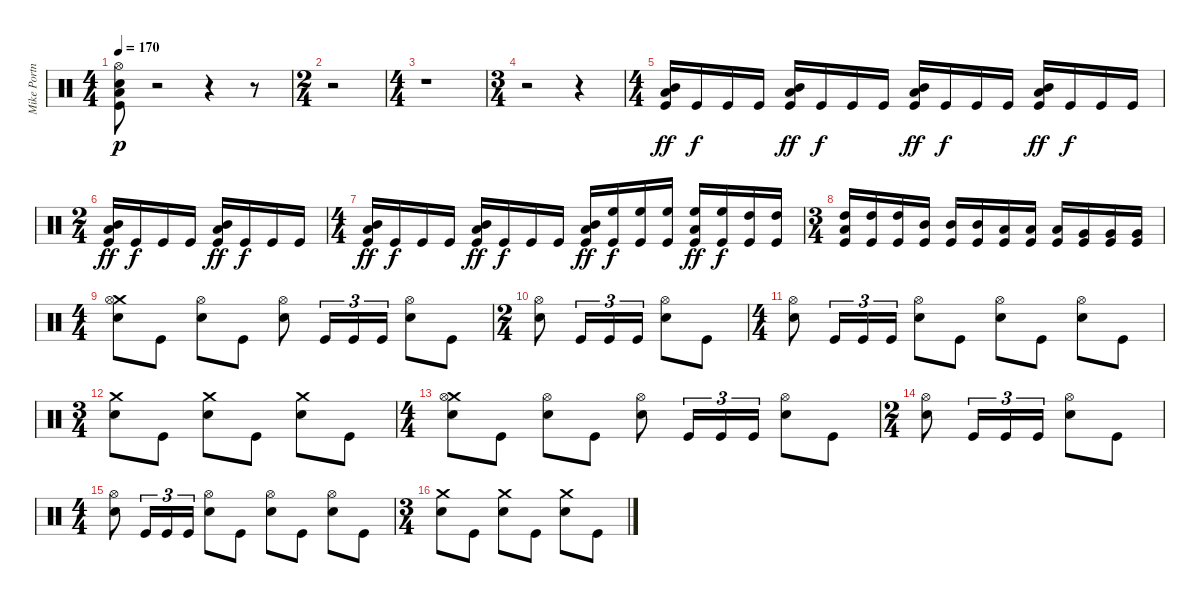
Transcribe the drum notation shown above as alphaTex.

\track ("Mike Portnoy" "Mike Portn") {instrument percussion}
\staff {score}
\articulation defaults
\ts (4 4)
\tempo 170
\clef neutral
\ks c
("Hi-Hat (open)" "Kick (hit)" "Electric Snare (hit)" "Low Tom (hit)").8{dy p} r.2 r.4 r.8 |
\ts (2 4)
r.2 |
\ts (4 4)
r.1 |
\ts (3 4)
r.2 r.4 |
\ts (4 4)
("Kick (hit)" "Low Tom (hit)" "Mid Tom (hit)").16{dy ff} "Kick (hit)".16{dy f} "Kick (hit)".16 "Kick (hit)".16 ("Kick (hit)" "Low Tom (hit)" "Mid Tom (hit)").16{dy ff} "Kick (hit)".16{dy f} "Kick (hit)".16 "Kick (hit)".16 ("Kick (hit)" "Low Tom (hit)" "Mid Tom (hit)").16{dy ff} "Kick (hit)".16{dy f} "Kick (hit)".16 "Kick (hit)".16 ("Kick (hit)" "Low Tom (hit)" "Mid Tom (hit)").16{dy ff} "Kick (hit)".16{dy f} "Kick (hit)".16 "Kick (hit)".16 |
\ts (2 4)
("Kick (hit)" "Low Tom (hit)" "Mid Tom (hit)").16{dy ff} "Kick (hit)".16{dy f} "Kick (hit)".16 "Kick (hit)".16 ("Kick (hit)" "Low Tom (hit)" "Mid Tom (hit)").16{dy ff} "Kick (hit)".16{dy f} "Kick (hit)".16 "Kick (hit)".16 |
\ts (4 4)
("Kick (hit)" "Low Tom (hit)" "Mid Tom (hit)").16{dy ff} "Kick (hit)".16{dy f} "Kick (hit)".16 "Kick (hit)".16 ("Kick (hit)" "Low Tom (hit)" "Mid Tom (hit)").16{dy ff} "Kick (hit)".16{dy f} "Kick (hit)".16 "Kick (hit)".16 ("Kick (hit)" "Low Tom (hit)" "Mid Tom (hit)").16{dy ff} ("Kick (hit)" "High Floor Tom (hit)").16{dy f} ("Kick (hit)" "High Floor Tom (hit)").16 ("Kick (hit)" "High Floor Tom (hit)").16 ("Kick (hit)" "Low Tom (hit)" "High Floor Tom (hit)").16{dy ff} ("Kick (hit)" "High Floor Tom (hit)").16{dy f} ("Kick (hit)" "High Tom (hit)").16 ("Kick (hit)" "High Tom (hit)").16 |
\ts (3 4)
("Kick (hit)" "Low Tom (hit)" "High Tom (hit)").16 ("Kick (hit)" "High Tom (hit)").16 ("Kick (hit)" "High Tom (hit)").16 ("Kick (hit)" "Mid Tom (hit)").16 ("Kick (hit)" "Mid Tom (hit)").16 ("Kick (hit)" "Mid Tom (hit)").16 ("Kick (hit)" "Low Tom (hit)").16 ("Kick (hit)" "Low Tom (hit)").16 ("Kick (hit)" "Low Tom (hit)").16 ("Kick (hit)" "Very Low Tom (hit)").16 ("Kick (hit)" "Very Low Tom (hit)").16 ("Kick (hit)" "Very Low Tom (hit)").16 |
\ts (4 4)
("Crash medium (hit)" "Hi-Hat (open)" "Electric Snare (hit)").8 "Kick (hit)".8 ("Hi-Hat (open)" "Electric Snare (hit)").8 "Kick (hit)".8 ("Hi-Hat (open)" "Electric Snare (hit)").8 "Kick (hit)".16{tu (3 2)} "Kick (hit)".16{tu (3 2)} "Kick (hit)".16{tu (3 2)} ("Hi-Hat (open)" "Electric Snare (hit)").8 "Kick (hit)".8 |
\ts (2 4)
("Hi-Hat (open)" "Electric Snare (hit)").8 "Kick (hit)".16{tu (3 2)} "Kick (hit)".16{tu (3 2)} "Kick (hit)".16{tu (3 2)} ("Hi-Hat (open)" "Electric Snare (hit)").8 "Kick (hit)".8 |
\ts (4 4)
("Hi-Hat (open)" "Electric Snare (hit)").8 "Kick (hit)".16{tu (3 2)} "Kick (hit)".16{tu (3 2)} "Kick (hit)".16{tu (3 2)} ("Hi-Hat (open)" "Electric Snare (hit)").8 "Kick (hit)".8 ("Hi-Hat (open)" "Electric Snare (hit)").8 "Kick (hit)".8 ("Hi-Hat (open)" "Electric Snare (hit)").8 "Kick (hit)".8 |
\ts (3 4)
("Crash medium (hit)" "Electric Snare (hit)").8 "Kick (hit)".8 ("Crash medium (hit)" "Electric Snare (hit)").8 "Kick (hit)".8 ("Crash medium (hit)" "Electric Snare (hit)").8 "Kick (hit)".8 |
\ts (4 4)
("Crash medium (hit)" "Hi-Hat (open)" "Electric Snare (hit)").8 "Kick (hit)".8 ("Hi-Hat (open)" "Electric Snare (hit)").8 "Kick (hit)".8 ("Hi-Hat (open)" "Electric Snare (hit)").8 "Kick (hit)".16{tu (3 2)} "Kick (hit)".16{tu (3 2)} "Kick (hit)".16{tu (3 2)} ("Hi-Hat (open)" "Electric Snare (hit)").8 "Kick (hit)".8 |
\ts (2 4)
("Hi-Hat (open)" "Electric Snare (hit)").8 "Kick (hit)".16{tu (3 2)} "Kick (hit)".16{tu (3 2)} "Kick (hit)".16{tu (3 2)} ("Hi-Hat (open)" "Electric Snare (hit)").8 "Kick (hit)".8 |
\ts (4 4)
("Hi-Hat (open)" "Electric Snare (hit)").8 "Kick (hit)".16{tu (3 2)} "Kick (hit)".16{tu (3 2)} "Kick (hit)".16{tu (3 2)} ("Hi-Hat (open)" "Electric Snare (hit)").8 "Kick (hit)".8 ("Hi-Hat (open)" "Electric Snare (hit)").8 "Kick (hit)".8 ("Hi-Hat (open)" "Electric Snare (hit)").8 "Kick (hit)".8 |
\ts (3 4)
("Crash medium (hit)" "Electric Snare (hit)").8 "Kick (hit)".8 ("Crash medium (hit)" "Electric Snare (hit)").8 "Kick (hit)".8 ("Crash medium (hit)" "Electric Snare (hit)").8 "Kick (hit)".8
